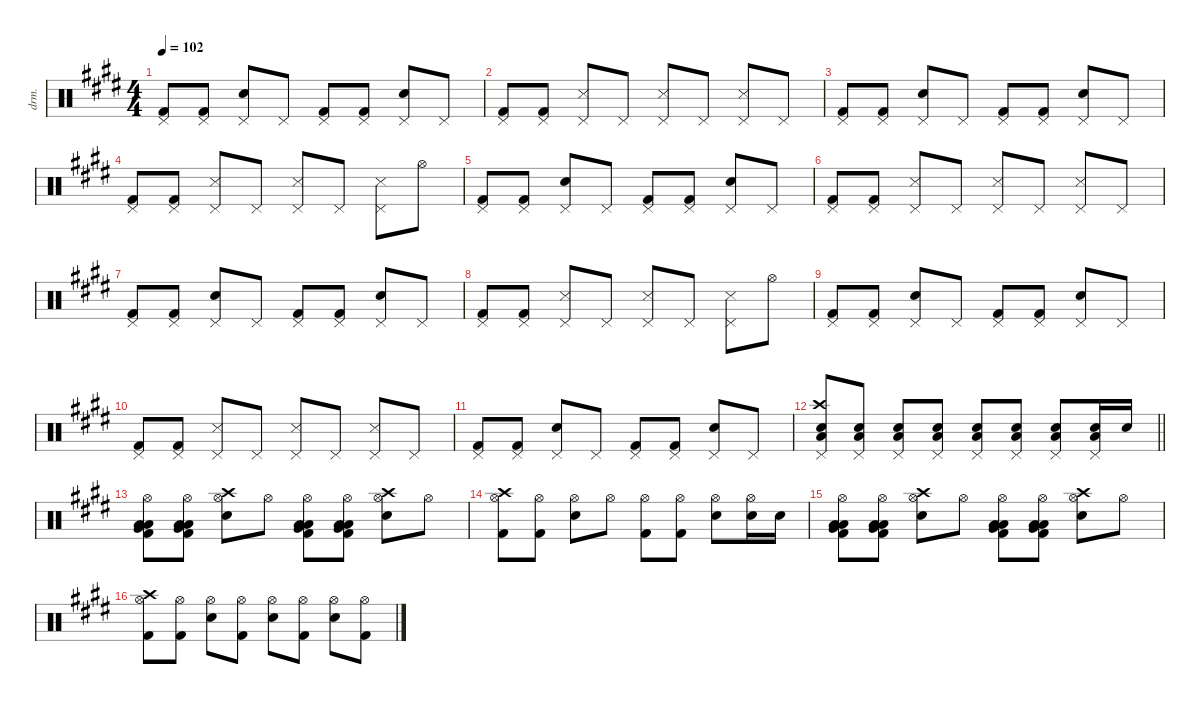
\defaultSystemsLayout 4
\hideDynamics
\bracketExtendMode nobrackets
\otherSystemsTrackNameOrientation horizontal
\track ("Percussion" "drm.") {instrument percussion}
\staff {score}
\articulation defaults
\ts (4 4)
\tempo 102
\clef neutral
\ks c#minor
("Kick (hit) 2"{acc forcenatural} "Pedal Hi-Hat (hit)"{acc forcenatural}).8{dy f beam Up} ("Kick (hit) 2"{acc forcenatural} "Pedal Hi-Hat (hit)"{acc forcenatural}).8{beam Up} ("Snare (hit) 2"{acc forcenatural} "Pedal Hi-Hat (hit)"{acc forcenatural}).8{beam Up} "Pedal Hi-Hat (hit)"{acc forcenatural}.8{beam Up} ("Kick (hit) 2"{acc forcenatural} "Pedal Hi-Hat (hit)"{acc forcenatural}).8{beam Up} ("Kick (hit) 2"{acc forcenatural} "Pedal Hi-Hat (hit)"{acc forcenatural}).8{beam Up} ("Snare (hit) 2"{acc forcenatural} "Pedal Hi-Hat (hit)"{acc forcenatural}).8{beam Up} "Pedal Hi-Hat (hit)"{acc forcenatural}.8{beam Up} |
("Kick (hit) 2"{acc forcenatural} "Pedal Hi-Hat (hit)"{acc forcenatural}).8{beam Up} ("Kick (hit) 2"{acc forcenatural} "Pedal Hi-Hat (hit)"{acc forcenatural}).8{beam Up} ("Metronome (hit)"{acc forcenatural} "Pedal Hi-Hat (hit)"{acc forcenatural}).8{beam Up} "Pedal Hi-Hat (hit)"{acc forcenatural}.8{beam Up} ("Metronome (hit)"{acc forcenatural} "Pedal Hi-Hat (hit)"{acc forcenatural}).8{beam Up} "Pedal Hi-Hat (hit)"{acc forcenatural}.8{beam Up} ("Metronome (hit)"{acc forcenatural} "Pedal Hi-Hat (hit)"{acc forcenatural}).8{beam Up} "Pedal Hi-Hat (hit)"{acc forcenatural}.8{beam Up} |
("Kick (hit) 2"{acc forcenatural} "Pedal Hi-Hat (hit)"{acc forcenatural}).8{beam Up} ("Kick (hit) 2"{acc forcenatural} "Pedal Hi-Hat (hit)"{acc forcenatural}).8{beam Up} ("Snare (hit) 2"{acc forcenatural} "Pedal Hi-Hat (hit)"{acc forcenatural}).8{beam Up} "Pedal Hi-Hat (hit)"{acc forcenatural}.8{beam Up} ("Kick (hit) 2"{acc forcenatural} "Pedal Hi-Hat (hit)"{acc forcenatural}).8{beam Up} ("Kick (hit) 2"{acc forcenatural} "Pedal Hi-Hat (hit)"{acc forcenatural}).8{beam Up} ("Snare (hit) 2"{acc forcenatural} "Pedal Hi-Hat (hit)"{acc forcenatural}).8{beam Up} "Pedal Hi-Hat (hit)"{acc forcenatural}.8{beam Up} |
("Kick (hit) 2"{acc forcenatural} "Pedal Hi-Hat (hit)"{acc forcenatural}).8{beam Up} ("Kick (hit) 2"{acc forcenatural} "Pedal Hi-Hat (hit)"{acc forcenatural}).8{beam Up} ("Metronome (hit)"{acc forcenatural} "Pedal Hi-Hat (hit)"{acc forcenatural}).8{beam Up} "Pedal Hi-Hat (hit)"{acc forcenatural}.8{beam Up} ("Metronome (hit)"{acc forcenatural} "Pedal Hi-Hat (hit)"{acc forcenatural}).8{beam Up} "Pedal Hi-Hat (hit)"{acc forcenatural}.8{beam Up} ("Metronome (hit)"{acc forcenatural} "Pedal Hi-Hat (hit)"{acc forcenatural}).8{beam Down} "Hi-Hat (open)"{acc forcenatural}.8{beam Down} |
("Kick (hit) 2"{acc forcenatural} "Pedal Hi-Hat (hit)"{acc forcenatural}).8{beam Up} ("Kick (hit) 2"{acc forcenatural} "Pedal Hi-Hat (hit)"{acc forcenatural}).8{beam Up} ("Snare (hit) 2"{acc forcenatural} "Pedal Hi-Hat (hit)"{acc forcenatural}).8{beam Up} "Pedal Hi-Hat (hit)"{acc forcenatural}.8{beam Up} ("Kick (hit) 2"{acc forcenatural} "Pedal Hi-Hat (hit)"{acc forcenatural}).8{beam Up} ("Kick (hit) 2"{acc forcenatural} "Pedal Hi-Hat (hit)"{acc forcenatural}).8{beam Up} ("Snare (hit) 2"{acc forcenatural} "Pedal Hi-Hat (hit)"{acc forcenatural}).8{beam Up} "Pedal Hi-Hat (hit)"{acc forcenatural}.8{beam Up} |
("Kick (hit) 2"{acc forcenatural} "Pedal Hi-Hat (hit)"{acc forcenatural}).8{beam Up} ("Kick (hit) 2"{acc forcenatural} "Pedal Hi-Hat (hit)"{acc forcenatural}).8{beam Up} ("Metronome (hit)"{acc forcenatural} "Pedal Hi-Hat (hit)"{acc forcenatural}).8{beam Up} "Pedal Hi-Hat (hit)"{acc forcenatural}.8{beam Up} ("Metronome (hit)"{acc forcenatural} "Pedal Hi-Hat (hit)"{acc forcenatural}).8{beam Up} "Pedal Hi-Hat (hit)"{acc forcenatural}.8{beam Up} ("Metronome (hit)"{acc forcenatural} "Pedal Hi-Hat (hit)"{acc forcenatural}).8{beam Up} "Pedal Hi-Hat (hit)"{acc forcenatural}.8{beam Up} |
("Kick (hit) 2"{acc forcenatural} "Pedal Hi-Hat (hit)"{acc forcenatural}).8{beam Up} ("Kick (hit) 2"{acc forcenatural} "Pedal Hi-Hat (hit)"{acc forcenatural}).8{beam Up} ("Snare (hit) 2"{acc forcenatural} "Pedal Hi-Hat (hit)"{acc forcenatural}).8{beam Up} "Pedal Hi-Hat (hit)"{acc forcenatural}.8{beam Up} ("Kick (hit) 2"{acc forcenatural} "Pedal Hi-Hat (hit)"{acc forcenatural}).8{beam Up} ("Kick (hit) 2"{acc forcenatural} "Pedal Hi-Hat (hit)"{acc forcenatural}).8{beam Up} ("Snare (hit) 2"{acc forcenatural} "Pedal Hi-Hat (hit)"{acc forcenatural}).8{beam Up} "Pedal Hi-Hat (hit)"{acc forcenatural}.8{beam Up} |
("Kick (hit) 2"{acc forcenatural} "Pedal Hi-Hat (hit)"{acc forcenatural}).8{beam Up} ("Kick (hit) 2"{acc forcenatural} "Pedal Hi-Hat (hit)"{acc forcenatural}).8{beam Up} ("Metronome (hit)"{acc forcenatural} "Pedal Hi-Hat (hit)"{acc forcenatural}).8{beam Up} "Pedal Hi-Hat (hit)"{acc forcenatural}.8{beam Up} ("Metronome (hit)"{acc forcenatural} "Pedal Hi-Hat (hit)"{acc forcenatural}).8{beam Up} "Pedal Hi-Hat (hit)"{acc forcenatural}.8{beam Up} ("Metronome (hit)"{acc forcenatural} "Pedal Hi-Hat (hit)"{acc forcenatural}).8{beam Down} "Hi-Hat (open)"{acc forcenatural}.8{beam Down} |
("Kick (hit) 2"{acc forcenatural} "Pedal Hi-Hat (hit)"{acc forcenatural}).8{beam Up} ("Kick (hit) 2"{acc forcenatural} "Pedal Hi-Hat (hit)"{acc forcenatural}).8{beam Up} ("Snare (hit) 2"{acc forcenatural} "Pedal Hi-Hat (hit)"{acc forcenatural}).8{beam Up} "Pedal Hi-Hat (hit)"{acc forcenatural}.8{beam Up} ("Kick (hit) 2"{acc forcenatural} "Pedal Hi-Hat (hit)"{acc forcenatural}).8{beam Up} ("Kick (hit) 2"{acc forcenatural} "Pedal Hi-Hat (hit)"{acc forcenatural}).8{beam Up} ("Snare (hit) 2"{acc forcenatural} "Pedal Hi-Hat (hit)"{acc forcenatural}).8{beam Up} "Pedal Hi-Hat (hit)"{acc forcenatural}.8{beam Up} |
("Kick (hit) 2"{acc forcenatural} "Pedal Hi-Hat (hit)"{acc forcenatural}).8{beam Up} ("Kick (hit) 2"{acc forcenatural} "Pedal Hi-Hat (hit)"{acc forcenatural}).8{beam Up} ("Metronome (hit)"{acc forcenatural} "Pedal Hi-Hat (hit)"{acc forcenatural}).8{beam Up} "Pedal Hi-Hat (hit)"{acc forcenatural}.8{beam Up} ("Metronome (hit)"{acc forcenatural} "Pedal Hi-Hat (hit)"{acc forcenatural}).8{beam Up} "Pedal Hi-Hat (hit)"{acc forcenatural}.8{beam Up} ("Metronome (hit)"{acc forcenatural} "Pedal Hi-Hat (hit)"{acc forcenatural}).8{beam Up} "Pedal Hi-Hat (hit)"{acc forcenatural}.8{beam Up} |
("Kick (hit) 2"{acc forcenatural} "Pedal Hi-Hat (hit)"{acc forcenatural}).8{beam Up} ("Kick (hit) 2"{acc forcenatural} "Pedal Hi-Hat (hit)"{acc forcenatural}).8{beam Up} ("Snare (hit) 2"{acc forcenatural} "Pedal Hi-Hat (hit)"{acc forcenatural}).8{beam Up} "Pedal Hi-Hat (hit)"{acc forcenatural}.8{beam Up} ("Kick (hit) 2"{acc forcenatural} "Pedal Hi-Hat (hit)"{acc forcenatural}).8{beam Up} ("Kick (hit) 2"{acc forcenatural} "Pedal Hi-Hat (hit)"{acc forcenatural}).8{beam Up} ("Snare (hit) 2"{acc forcenatural} "Pedal Hi-Hat (hit)"{acc forcenatural}).8{beam Up} "Pedal Hi-Hat (hit)"{acc forcenatural}.8{beam Up} |
\barLineRight lightlight
("Snare (hit) 2"{acc forcenatural} "Low Tom (hit)"{acc forcenatural} "Crash high (hit)"{acc forcenatural} "Pedal Hi-Hat (hit)"{acc forcenatural}).8{dy mp beam Up} ("Snare (hit) 2"{acc forcenatural} "Low Tom (hit)"{acc forcenatural} "Pedal Hi-Hat (hit)"{acc forcenatural}).8{beam Up} ("Snare (hit) 2"{acc forcenatural} "Low Tom (hit)"{acc forcenatural} "Pedal Hi-Hat (hit)"{acc forcenatural}).8{dy mf beam Up} ("Snare (hit) 2"{acc forcenatural} "Low Tom (hit)"{acc forcenatural} "Pedal Hi-Hat (hit)"{acc forcenatural}).8{beam Up} ("Snare (hit) 2"{acc forcenatural} "Low Tom (hit)"{acc forcenatural} "Pedal Hi-Hat (hit)"{acc forcenatural}).8{dy f beam Up} ("Snare (hit) 2"{acc forcenatural} "Low Tom (hit)"{acc forcenatural} "Pedal Hi-Hat (hit)"{acc forcenatural}).8{beam Up} ("Snare (hit) 2"{acc forcenatural} "Low Tom (hit)"{acc forcenatural} "Pedal Hi-Hat (hit)"{acc forcenatural}).8{beam Up} ("Snare (hit) 2"{acc forcenatural} "Low Tom (hit)"{acc forcenatural} "Pedal Hi-Hat (hit)"{acc forcenatural}).16{beam Up} "Snare (hit) 2"{acc forcenatural}.16{beam Up} |
("Kick (hit) 2"{acc forcenatural} "Hi-Hat (open)"{acc forcenatural} "Low Tom (hit)"{acc forcenatural} "Very Low Tom (hit)"{acc forcenatural} "Low Floor Tom (hit)"{acc forcenatural}).8{beam Down} ("Kick (hit) 2"{acc forcenatural} "Hi-Hat (open)"{acc forcenatural} "Low Tom (hit)"{acc forcenatural} "Very Low Tom (hit)"{acc forcenatural} "Low Floor Tom (hit)"{acc forcenatural}).8{beam Down} ("Snare (hit) 2"{acc forcenatural} "Hi-Hat (open)"{acc forcenatural} "Crash high (hit)"{acc forcenatural}).8{beam Down} "Hi-Hat (open)"{acc forcenatural}.8{beam Down} ("Kick (hit) 2"{acc forcenatural} "Hi-Hat (open)"{acc forcenatural} "Low Tom (hit)"{acc forcenatural} "Very Low Tom (hit)"{acc forcenatural} "Low Floor Tom (hit)"{acc forcenatural}).8{beam Down} ("Kick (hit) 2"{acc forcenatural} "Hi-Hat (open)"{acc forcenatural} "Low Tom (hit)"{acc forcenatural} "Very Low Tom (hit)"{acc forcenatural} "Low Floor Tom (hit)"{acc forcenatural}).8{beam Down} ("Snare (hit) 2"{acc forcenatural} "Hi-Hat (open)"{acc forcenatural} "Crash high (hit)"{acc forcenatural}).8{beam Down} "Hi-Hat (open)"{acc forcenatural}.8{beam Down} |
("Kick (hit) 2"{acc forcenatural} "Hi-Hat (open)"{acc forcenatural} "Crash high (hit)"{acc forcenatural}).8{beam Down} ("Kick (hit) 2"{acc forcenatural} "Hi-Hat (open)"{acc forcenatural}).8{beam Down} ("Snare (hit) 2"{acc forcenatural} "Hi-Hat (open)"{acc forcenatural}).8{beam Down} "Hi-Hat (open)"{acc forcenatural}.8{beam Down} ("Kick (hit) 2"{acc forcenatural} "Hi-Hat (open)"{acc forcenatural}).8{beam Down} ("Kick (hit) 2"{acc forcenatural} "Hi-Hat (open)"{acc forcenatural}).8{beam Down} ("Snare (hit) 2"{acc forcenatural} "Hi-Hat (open)"{acc forcenatural}).8{beam Down} ("Snare (hit) 2"{acc forcenatural} "Hi-Hat (open)"{acc forcenatural}).16{beam Down} "Snare (hit) 2"{acc forcenatural}.16{beam Down} |
("Kick (hit) 2"{acc forcenatural} "Hi-Hat (open)"{acc forcenatural} "Low Tom (hit)"{acc forcenatural} "Very Low Tom (hit)"{acc forcenatural} "Low Floor Tom (hit)"{acc forcenatural}).8{beam Down} ("Kick (hit) 2"{acc forcenatural} "Hi-Hat (open)"{acc forcenatural} "Low Tom (hit)"{acc forcenatural} "Very Low Tom (hit)"{acc forcenatural} "Low Floor Tom (hit)"{acc forcenatural}).8{beam Down} ("Snare (hit) 2"{acc forcenatural} "Hi-Hat (open)"{acc forcenatural} "Crash high (hit)"{acc forcenatural}).8{beam Down} "Hi-Hat (open)"{acc forcenatural}.8{beam Down} ("Kick (hit) 2"{acc forcenatural} "Hi-Hat (open)"{acc forcenatural} "Low Tom (hit)"{acc forcenatural} "Very Low Tom (hit)"{acc forcenatural} "Low Floor Tom (hit)"{acc forcenatural}).8{beam Down} ("Kick (hit) 2"{acc forcenatural} "Hi-Hat (open)"{acc forcenatural} "Low Tom (hit)"{acc forcenatural} "Very Low Tom (hit)"{acc forcenatural} "Low Floor Tom (hit)"{acc forcenatural}).8{beam Down} ("Snare (hit) 2"{acc forcenatural} "Hi-Hat (open)"{acc forcenatural} "Crash high (hit)"{acc forcenatural}).8{beam Down} "Hi-Hat (open)"{acc forcenatural}.8{beam Down} |
("Kick (hit) 2"{acc forcenatural} "Hi-Hat (open)"{acc forcenatural} "Crash high (hit)"{acc forcenatural}).8{beam Down} ("Kick (hit) 2"{acc forcenatural} "Hi-Hat (open)"{acc forcenatural}).8{beam Down} ("Snare (hit) 2"{acc forcenatural} "Hi-Hat (open)"{acc forcenatural}).8{beam Down} ("Kick (hit) 2"{acc forcenatural} "Hi-Hat (open)"{acc forcenatural}).8{beam Down} ("Snare (hit) 2"{acc forcenatural} "Hi-Hat (open)"{acc forcenatural}).8{beam Down} ("Kick (hit) 2"{acc forcenatural} "Hi-Hat (open)"{acc forcenatural}).8{beam Down} ("Snare (hit) 2"{acc forcenatural} "Hi-Hat (open)"{acc forcenatural}).8{beam Down} ("Kick (hit) 2"{acc forcenatural} "Hi-Hat (open)"{acc forcenatural}).8{beam Down}
